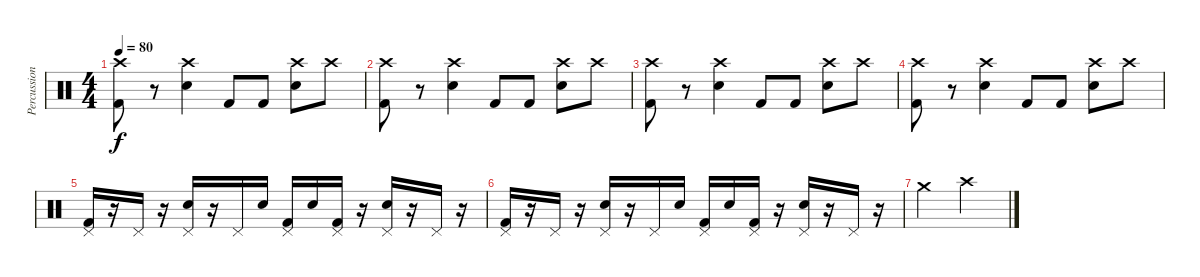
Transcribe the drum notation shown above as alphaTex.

\track ("Percussions" "Percussion") {instrument percussion}
\staff {score}
\articulation defaults
\ts (4 4)
\tempo 80
\clef neutral
\ks c
("Crash high (hit)" "Kick (hit) 2").8{dy f} r.8 ("Crash high (hit)" "Electric Snare (hit)").4 "Kick (hit) 2".8 "Kick (hit) 2".8 ("Crash high (hit)" "Electric Snare (hit)").8 "Crash high (hit)".8 |
("Crash high (hit)" "Kick (hit) 2").8 r.8 ("Crash high (hit)" "Electric Snare (hit)").4 "Kick (hit) 2".8 "Kick (hit) 2".8 ("Crash high (hit)" "Electric Snare (hit)").8 "Crash high (hit)".8 |
("Crash high (hit)" "Kick (hit) 2").8 r.8 ("Crash high (hit)" "Electric Snare (hit)").4 "Kick (hit) 2".8 "Kick (hit) 2".8 ("Crash high (hit)" "Electric Snare (hit)").8 "Crash high (hit)".8 |
("Crash high (hit)" "Kick (hit) 2").8 r.8 ("Crash high (hit)" "Electric Snare (hit)").4 "Kick (hit) 2".8 "Kick (hit) 2".8 ("Crash high (hit)" "Electric Snare (hit)").8 "Crash high (hit)".8 |
("Pedal Hi-Hat (hit)" "Kick (hit) 2").16 r.16 "Pedal Hi-Hat (hit)".16 r.16 ("Pedal Hi-Hat (hit)" "Electric Snare (hit)").16 r.16 "Pedal Hi-Hat (hit)".16 "Electric Snare (hit)".16 ("Pedal Hi-Hat (hit)" "Kick (hit) 2").16 "Electric Snare (hit)".16 ("Pedal Hi-Hat (hit)" "Kick (hit) 2").16 r.16 ("Pedal Hi-Hat (hit)" "Electric Snare (hit)").16 r.16 "Pedal Hi-Hat (hit)".16 r.16 |
("Pedal Hi-Hat (hit)" "Kick (hit) 2").16 r.16 "Pedal Hi-Hat (hit)".16 r.16 ("Pedal Hi-Hat (hit)" "Electric Snare (hit)").16 r.16 "Pedal Hi-Hat (hit)".16 "Electric Snare (hit)".16 ("Pedal Hi-Hat (hit)" "Kick (hit) 2").16 "Electric Snare (hit)".16 ("Pedal Hi-Hat (hit)" "Kick (hit) 2").16 r.16 ("Pedal Hi-Hat (hit)" "Electric Snare (hit)").16 r.16 "Pedal Hi-Hat (hit)".16 r.16 |
"Crash medium (hit)".2 "Crash high (hit)".2
